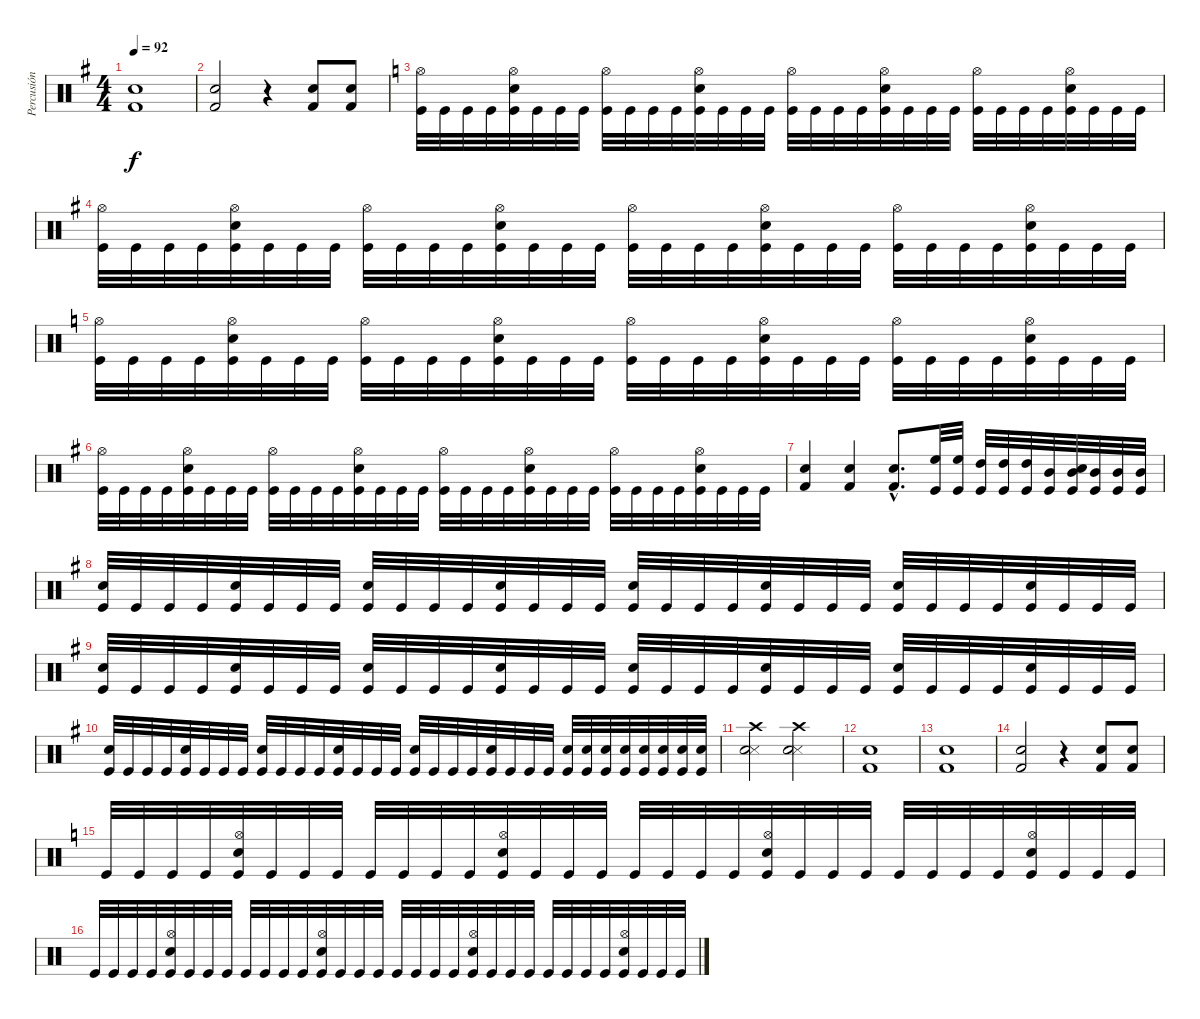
\track ("Percusión" "Percusión") {instrument percussion}
\staff {score}
\articulation defaults
\ts (4 4)
\tempo 92
\clef neutral
\ks g
("Snare (hit) 2" "Kick (hit) 2").1{dy f} |
("Kick (hit) 2" "Snare (hit) 2").2 r.4 ("Snare (hit) 2" "Kick (hit) 2").8 ("Snare (hit) 2" "Kick (hit) 2").8 |
\ks c
("Hi-Hat (open)" "Kick (hit)").32 "Kick (hit)".32 "Kick (hit)".32 "Kick (hit)".32 ("Snare (hit) 2" "Hi-Hat (open)" "Kick (hit)").32 "Kick (hit)".32 "Kick (hit)".32 "Kick (hit)".32 ("Hi-Hat (open)" "Kick (hit)").32 "Kick (hit)".32 "Kick (hit)".32 "Kick (hit)".32 ("Snare (hit) 2" "Hi-Hat (open)" "Kick (hit)").32 "Kick (hit)".32 "Kick (hit)".32 "Kick (hit)".32 ("Hi-Hat (open)" "Kick (hit)").32 "Kick (hit)".32 "Kick (hit)".32 "Kick (hit)".32 ("Snare (hit) 2" "Hi-Hat (open)" "Kick (hit)").32 "Kick (hit)".32 "Kick (hit)".32 "Kick (hit)".32 ("Hi-Hat (open)" "Kick (hit)").32 "Kick (hit)".32 "Kick (hit)".32 "Kick (hit)".32 ("Snare (hit) 2" "Hi-Hat (open)" "Kick (hit)").32 "Kick (hit)".32 "Kick (hit)".32 "Kick (hit)".32 |
\ks g
("Hi-Hat (open)" "Kick (hit)").32 "Kick (hit)".32 "Kick (hit)".32 "Kick (hit)".32 ("Snare (hit) 2" "Hi-Hat (open)" "Kick (hit)").32 "Kick (hit)".32 "Kick (hit)".32 "Kick (hit)".32 ("Hi-Hat (open)" "Kick (hit)").32 "Kick (hit)".32 "Kick (hit)".32 "Kick (hit)".32 ("Snare (hit) 2" "Hi-Hat (open)" "Kick (hit)").32 "Kick (hit)".32 "Kick (hit)".32 "Kick (hit)".32 ("Hi-Hat (open)" "Kick (hit)").32 "Kick (hit)".32 "Kick (hit)".32 "Kick (hit)".32 ("Snare (hit) 2" "Hi-Hat (open)" "Kick (hit)").32 "Kick (hit)".32 "Kick (hit)".32 "Kick (hit)".32 ("Hi-Hat (open)" "Kick (hit)").32 "Kick (hit)".32 "Kick (hit)".32 "Kick (hit)".32 ("Snare (hit) 2" "Hi-Hat (open)" "Kick (hit)").32 "Kick (hit)".32 "Kick (hit)".32 "Kick (hit)".32 |
\ks c
("Hi-Hat (open)" "Kick (hit)").32 "Kick (hit)".32 "Kick (hit)".32 "Kick (hit)".32 ("Snare (hit) 2" "Hi-Hat (open)" "Kick (hit)").32 "Kick (hit)".32 "Kick (hit)".32 "Kick (hit)".32 ("Hi-Hat (open)" "Kick (hit)").32 "Kick (hit)".32 "Kick (hit)".32 "Kick (hit)".32 ("Snare (hit) 2" "Hi-Hat (open)" "Kick (hit)").32 "Kick (hit)".32 "Kick (hit)".32 "Kick (hit)".32 ("Hi-Hat (open)" "Kick (hit)").32 "Kick (hit)".32 "Kick (hit)".32 "Kick (hit)".32 ("Snare (hit) 2" "Hi-Hat (open)" "Kick (hit)").32 "Kick (hit)".32 "Kick (hit)".32 "Kick (hit)".32 ("Hi-Hat (open)" "Kick (hit)").32 "Kick (hit)".32 "Kick (hit)".32 "Kick (hit)".32 ("Snare (hit) 2" "Hi-Hat (open)" "Kick (hit)").32 "Kick (hit)".32 "Kick (hit)".32 "Kick (hit)".32 |
\ks g
("Hi-Hat (open)" "Kick (hit)").32 "Kick (hit)".32 "Kick (hit)".32 "Kick (hit)".32 ("Snare (hit) 2" "Hi-Hat (open)" "Kick (hit)").32 "Kick (hit)".32 "Kick (hit)".32 "Kick (hit)".32 ("Hi-Hat (open)" "Kick (hit)").32 "Kick (hit)".32 "Kick (hit)".32 "Kick (hit)".32 ("Snare (hit) 2" "Hi-Hat (open)" "Kick (hit)").32 "Kick (hit)".32 "Kick (hit)".32 "Kick (hit)".32 ("Hi-Hat (open)" "Kick (hit)").32 "Kick (hit)".32 "Kick (hit)".32 "Kick (hit)".32 ("Snare (hit) 2" "Hi-Hat (open)" "Kick (hit)").32 "Kick (hit)".32 "Kick (hit)".32 "Kick (hit)".32 ("Hi-Hat (open)" "Kick (hit)").32 "Kick (hit)".32 "Kick (hit)".32 "Kick (hit)".32 ("Snare (hit) 2" "Hi-Hat (open)" "Kick (hit)").32 "Kick (hit)".32 "Kick (hit)".32 "Kick (hit)".32 |
("Snare (hit) 2" "Kick (hit) 2").4 ("Snare (hit) 2" "Kick (hit) 2").4 ("Snare (hit) 2"{hac} "Kick (hit) 2"{hac}).8{d} ("High Floor Tom (hit)" "Kick (hit)").32 ("High Floor Tom (hit)" "Kick (hit)").32 ("High Tom (hit)" "Kick (hit)").32 ("High Tom (hit)" "Kick (hit)").32 ("High Tom (hit)" "Kick (hit)").32 ("Mid Tom (hit)" "Kick (hit)").32 ("Mid Tom (hit)" "Snare (hit) 2" "Kick (hit)").32 ("Mid Tom (hit)" "Kick (hit)").32 ("Mid Tom (hit)" "Kick (hit)").32 ("Mid Tom (hit)" "Kick (hit)").32 |
("Snare (hit) 2" "Kick (hit)").32 "Kick (hit)".32 "Kick (hit)".32 "Kick (hit)".32 ("Snare (hit) 2" "Kick (hit)").32 "Kick (hit)".32 "Kick (hit)".32 "Kick (hit)".32 ("Snare (hit) 2" "Kick (hit)").32 "Kick (hit)".32 "Kick (hit)".32 "Kick (hit)".32 ("Snare (hit) 2" "Kick (hit)").32 "Kick (hit)".32 "Kick (hit)".32 "Kick (hit)".32 ("Snare (hit) 2" "Kick (hit)").32 "Kick (hit)".32 "Kick (hit)".32 "Kick (hit)".32 ("Snare (hit) 2" "Kick (hit)").32 "Kick (hit)".32 "Kick (hit)".32 "Kick (hit)".32 ("Snare (hit) 2" "Kick (hit)").32 "Kick (hit)".32 "Kick (hit)".32 "Kick (hit)".32 ("Snare (hit) 2" "Kick (hit)").32 "Kick (hit)".32 "Kick (hit)".32 "Kick (hit)".32 |
("Snare (hit) 2" "Kick (hit)").32 "Kick (hit)".32 "Kick (hit)".32 "Kick (hit)".32 ("Snare (hit) 2" "Kick (hit)").32 "Kick (hit)".32 "Kick (hit)".32 "Kick (hit)".32 ("Snare (hit) 2" "Kick (hit)").32 "Kick (hit)".32 "Kick (hit)".32 "Kick (hit)".32 ("Snare (hit) 2" "Kick (hit)").32 "Kick (hit)".32 "Kick (hit)".32 "Kick (hit)".32 ("Snare (hit) 2" "Kick (hit)").32 "Kick (hit)".32 "Kick (hit)".32 "Kick (hit)".32 ("Snare (hit) 2" "Kick (hit)").32 "Kick (hit)".32 "Kick (hit)".32 "Kick (hit)".32 ("Snare (hit) 2" "Kick (hit)").32 "Kick (hit)".32 "Kick (hit)".32 "Kick (hit)".32 ("Snare (hit) 2" "Kick (hit)").32 "Kick (hit)".32 "Kick (hit)".32 "Kick (hit)".32 |
("Snare (hit) 2" "Kick (hit)").32 "Kick (hit)".32 "Kick (hit)".32 "Kick (hit)".32 ("Snare (hit) 2" "Kick (hit)").32 "Kick (hit)".32 "Kick (hit)".32 "Kick (hit)".32 ("Snare (hit) 2" "Kick (hit)").32 "Kick (hit)".32 "Kick (hit)".32 "Kick (hit)".32 ("Snare (hit) 2" "Kick (hit)").32 "Kick (hit)".32 "Kick (hit)".32 "Kick (hit)".32 ("Snare (hit) 2" "Kick (hit)").32 "Kick (hit)".32 "Kick (hit)".32 "Kick (hit)".32 ("Snare (hit) 2" "Kick (hit)").32 "Kick (hit)".32 "Kick (hit)".32 "Kick (hit)".32 ("Snare (hit) 2" "Kick (hit)").32 ("Snare (hit) 2" "Kick (hit)").32 ("Snare (hit) 2" "Kick (hit)").32 ("Snare (hit) 2" "Kick (hit)").32 ("Snare (hit) 2" "Kick (hit)").32 ("Snare (hit) 2" "Kick (hit)").32 ("Snare (hit) 2" "Kick (hit)").32 ("Snare (hit) 2" "Kick (hit)").32 |
("Snare (side stick) 3" "Snare (hit) 2" "Crash high (hit)").2 ("Snare (side stick) 3" "Snare (hit) 2" "Crash high (hit)").2 |
("Kick (hit) 2" "Snare (hit) 2").1 |
("Snare (hit) 2" "Kick (hit) 2").1 |
("Kick (hit) 2" "Snare (hit) 2").2 r.4 ("Snare (hit) 2" "Kick (hit) 2").8 ("Snare (hit) 2" "Kick (hit) 2").8 |
\ks c "Kick (hit)".32 "Kick (hit)".32 "Kick (hit)".32 "Kick (hit)".32
("Snare (hit) 2" "Hi-Hat (open)" "Kick (hit)").32 "Kick (hit)".32 "Kick (hit)".32 "Kick (hit)".32 "Kick (hit)".32 "Kick (hit)".32 "Kick (hit)".32 "Kick (hit)".32 ("Snare (hit) 2" "Hi-Hat (open)" "Kick (hit)").32 "Kick (hit)".32 "Kick (hit)".32 "Kick (hit)".32 "Kick (hit)".32 "Kick (hit)".32 "Kick (hit)".32 "Kick (hit)".32 ("Snare (hit) 2" "Hi-Hat (open)" "Kick (hit)").32 "Kick (hit)".32 "Kick (hit)".32 "Kick (hit)".32 "Kick (hit)".32 "Kick (hit)".32 "Kick (hit)".32 "Kick (hit)".32 ("Snare (hit) 2" "Hi-Hat (open)" "Kick (hit)").32 "Kick (hit)".32 "Kick (hit)".32 "Kick (hit)".32 |
"Kick (hit)".32 "Kick (hit)".32 "Kick (hit)".32 "Kick (hit)".32 ("Snare (hit) 2" "Hi-Hat (open)" "Kick (hit)").32 "Kick (hit)".32 "Kick (hit)".32 "Kick (hit)".32 "Kick (hit)".32 "Kick (hit)".32 "Kick (hit)".32 "Kick (hit)".32 ("Snare (hit) 2" "Hi-Hat (open)" "Kick (hit)").32 "Kick (hit)".32 "Kick (hit)".32 "Kick (hit)".32 "Kick (hit)".32 "Kick (hit)".32 "Kick (hit)".32 "Kick (hit)".32 ("Snare (hit) 2" "Hi-Hat (open)" "Kick (hit)").32 "Kick (hit)".32 "Kick (hit)".32 "Kick (hit)".32 "Kick (hit)".32 "Kick (hit)".32 "Kick (hit)".32 "Kick (hit)".32 ("Snare (hit) 2" "Hi-Hat (open)" "Kick (hit)").32 "Kick (hit)".32 "Kick (hit)".32 "Kick (hit)".32
